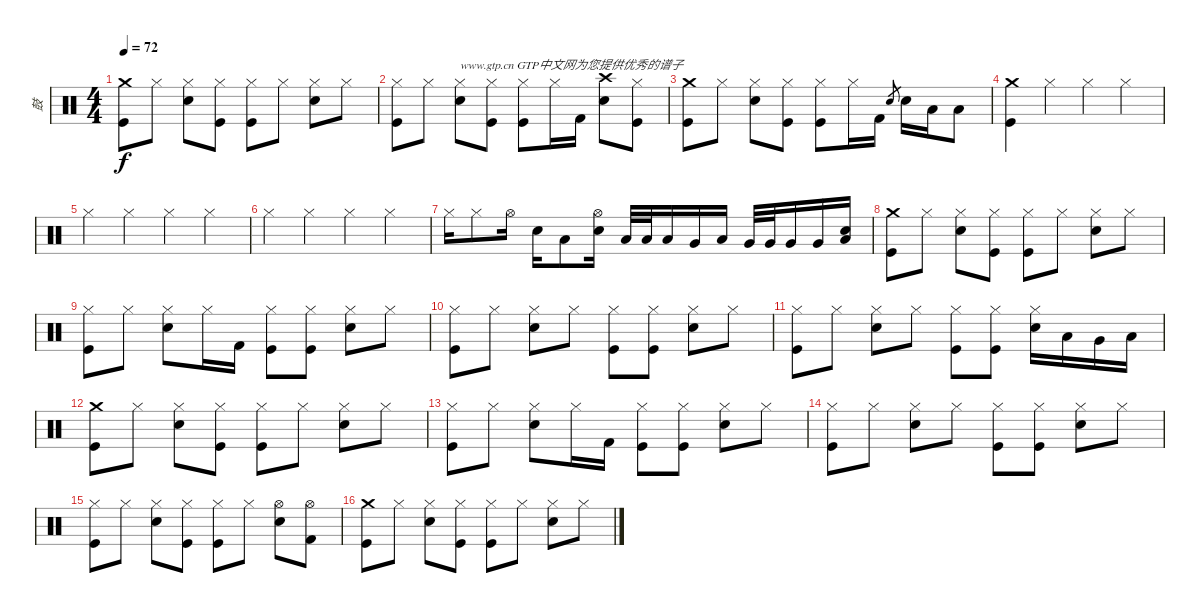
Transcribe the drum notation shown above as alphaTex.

\track ("鼓" "鼓") {instrument percussion}
\staff {score}
\articulation defaults
\ts (4 4)
\tempo 72
\clef neutral
\ks c
("Crash medium (hit)" "Kick (hit)").8{dy f} "Hi-Hat (closed)".8 ("Hi-Hat (closed)" "Snare (hit) 2").8 ("Hi-Hat (closed)" "Kick (hit)").8 ("Hi-Hat (closed)" "Kick (hit)").8 "Hi-Hat (closed)".8 ("Hi-Hat (closed)" "Snare (hit) 2").8 "Hi-Hat (closed)".8 |
("Hi-Hat (closed)" "Kick (hit)").8 "Hi-Hat (closed)".8 ("Hi-Hat (closed)" "Snare (hit) 2").8{txt "www.gtp.cn GTP中文网为您提供优秀的谱子"} ("Hi-Hat (closed)" "Kick (hit)").8 ("Hi-Hat (closed)" "Kick (hit)").8 "Hi-Hat (closed)".16 "Kick (hit) 2".16 ("Crash high (hit)" "Snare (hit) 2").8 ("Hi-Hat (closed)" "Kick (hit)").8 |
("Crash medium (hit)" "Kick (hit)").8 "Hi-Hat (closed)".8 ("Hi-Hat (closed)" "Snare (hit) 2").8 ("Hi-Hat (closed)" "Kick (hit)").8 ("Hi-Hat (closed)" "Kick (hit)").8 "Hi-Hat (closed)".16 "Kick (hit) 2".16 "Snare (hit) 2".8{gr} "Snare (hit) 2".16 "Low Tom (hit)".16 "Low Floor Tom (hit)".8 |
("Crash medium (hit)" "Kick (hit)").4 "Hi-Hat (closed)".4 "Hi-Hat (closed)".4 "Hi-Hat (closed)".4 |
"Hi-Hat (closed)".4 "Hi-Hat (closed)".4 "Hi-Hat (closed)".4 "Hi-Hat (closed)".4 |
"Hi-Hat (closed)".4 "Hi-Hat (closed)".4 "Hi-Hat (closed)".4 "Hi-Hat (closed)".4 |
"Hi-Hat (closed)".16 "Hi-Hat (closed)".8 "Hi-Hat (open)".16 "Electric Snare (hit)".16 "Low Tom (hit)".8 ("Hi-Hat (open)" "Electric Snare (hit)").16 "Low Tom (hit)".32 "Low Tom (hit)".32 "Low Tom (hit)".16 "Very Low Tom (hit)".16 "Low Floor Tom (hit)".16 "Very Low Tom (hit)".32 "Very Low Tom (hit)".32 "Very Low Tom (hit)".16 "Very Low Tom (hit)".16 ("Electric Snare (hit)" "Low Floor Tom (hit)").16 |
("Crash medium (hit)" "Kick (hit)").8 "Hi-Hat (closed)".8 ("Hi-Hat (closed)" "Snare (hit) 2").8 ("Hi-Hat (closed)" "Kick (hit)").8 ("Hi-Hat (closed)" "Kick (hit)").8 "Hi-Hat (closed)".8 ("Hi-Hat (closed)" "Snare (hit) 2").8 "Hi-Hat (closed)".8 |
("Hi-Hat (closed)" "Kick (hit)").8 "Hi-Hat (closed)".8 ("Hi-Hat (closed)" "Snare (hit) 2").8 "Hi-Hat (closed)".16 "Kick (hit) 2".16 ("Hi-Hat (closed)" "Kick (hit)").8 ("Hi-Hat (closed)" "Kick (hit)").8 ("Hi-Hat (closed)" "Snare (hit) 2").8 "Hi-Hat (closed)".8 |
("Hi-Hat (closed)" "Kick (hit)").8 "Hi-Hat (closed)".8 ("Hi-Hat (closed)" "Snare (hit) 2").8 "Hi-Hat (closed)".8 ("Hi-Hat (closed)" "Kick (hit)").8 ("Hi-Hat (closed)" "Kick (hit)").8 ("Hi-Hat (closed)" "Snare (hit) 2").8 "Hi-Hat (closed)".8 |
("Hi-Hat (closed)" "Kick (hit)").8 "Hi-Hat (closed)".8 ("Hi-Hat (closed)" "Snare (hit) 2").8 "Hi-Hat (closed)".8 ("Hi-Hat (closed)" "Kick (hit)").8 ("Hi-Hat (closed)" "Kick (hit)").8 ("Hi-Hat (closed)" "Snare (hit) 2").16 "Low Tom (hit)".16 "Very Low Tom (hit)".16 "Low Floor Tom (hit)".16 |
("Crash medium (hit)" "Kick (hit)").8 "Hi-Hat (closed)".8 ("Hi-Hat (closed)" "Snare (hit) 2").8 ("Hi-Hat (closed)" "Kick (hit)").8 ("Hi-Hat (closed)" "Kick (hit)").8 "Hi-Hat (closed)".8 ("Hi-Hat (closed)" "Snare (hit) 2").8 "Hi-Hat (closed)".8 |
("Hi-Hat (closed)" "Kick (hit)").8 "Hi-Hat (closed)".8 ("Hi-Hat (closed)" "Snare (hit) 2").8 "Hi-Hat (closed)".16 "Kick (hit) 2".16 ("Hi-Hat (closed)" "Kick (hit)").8 ("Hi-Hat (closed)" "Kick (hit)").8 ("Hi-Hat (closed)" "Snare (hit) 2").8 "Hi-Hat (closed)".8 |
("Hi-Hat (closed)" "Kick (hit)").8 "Hi-Hat (closed)".8 ("Hi-Hat (closed)" "Snare (hit) 2").8 "Hi-Hat (closed)".8 ("Hi-Hat (closed)" "Kick (hit)").8 ("Hi-Hat (closed)" "Kick (hit)").8 ("Hi-Hat (closed)" "Snare (hit) 2").8 "Hi-Hat (closed)".8 |
("Hi-Hat (closed)" "Kick (hit)").8 "Hi-Hat (closed)".8 ("Hi-Hat (closed)" "Snare (hit) 2").8 ("Hi-Hat (closed)" "Kick (hit)").8 ("Hi-Hat (closed)" "Kick (hit)").8 "Hi-Hat (closed)".8 ("Hi-Hat (open)" "Snare (hit) 2").8 ("Hi-Hat (open)" "Kick (hit) 2").8 |
("Crash medium (hit)" "Kick (hit)").8 "Hi-Hat (closed)".8 ("Hi-Hat (closed)" "Snare (hit) 2").8 ("Hi-Hat (closed)" "Kick (hit)").8 ("Hi-Hat (closed)" "Kick (hit)").8 "Hi-Hat (closed)".8 ("Hi-Hat (closed)" "Snare (hit) 2").8 "Hi-Hat (closed)".8
